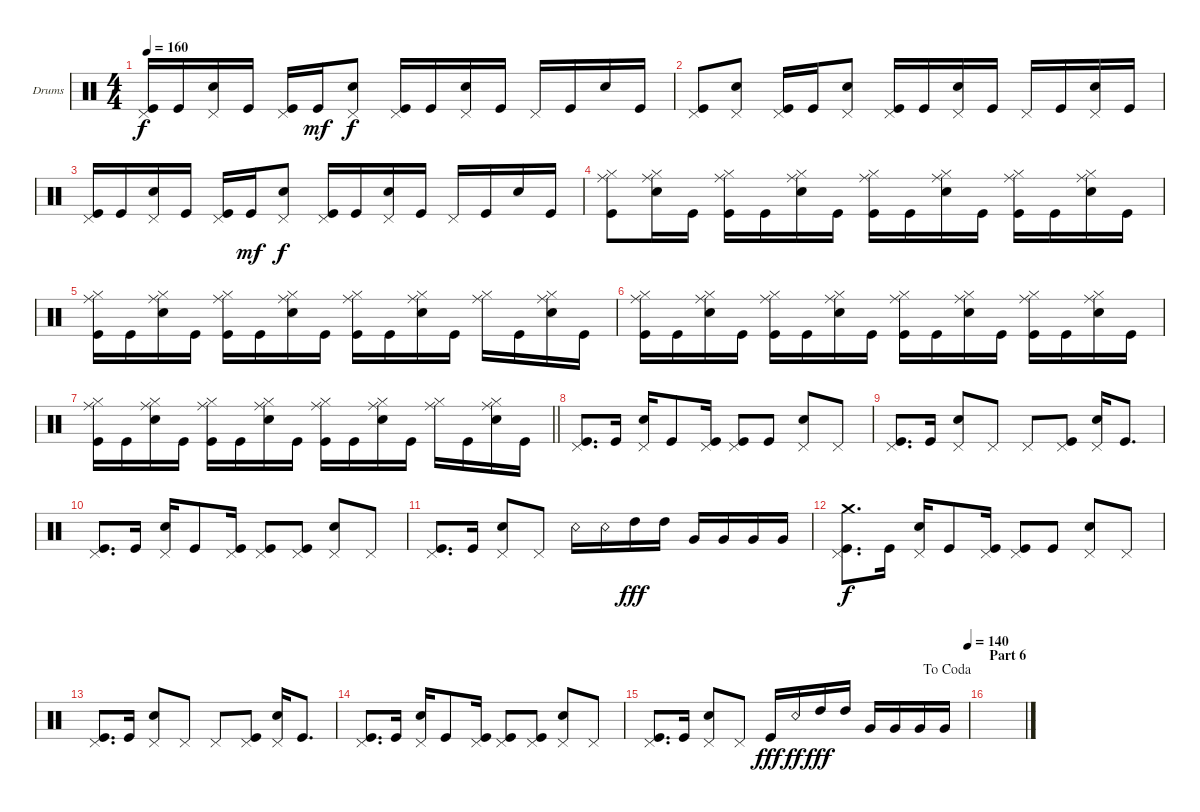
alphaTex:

\defaultSystemsLayout 4
\bracketExtendMode groupsimilarinstruments
\firstSystemTrackNameOrientation horizontal
\otherSystemsTrackNameOrientation horizontal
\track ("Drumkit" "Drums") {instrument percussion}
\staff {score}
\articulation defaults
\ts (4 4)
\tempo 160
\clef neutral
\ks aminor
("Kick (hit)" "Pedal Hi-Hat (hit)").16{dy f} "Kick (hit)".16 ("Snare (hit) 2" "Pedal Hi-Hat (hit)").16 "Kick (hit)".16 ("Kick (hit)" "Pedal Hi-Hat (hit)").16 "Kick (hit)".16{dy mf} ("Snare (hit) 2" "Pedal Hi-Hat (hit)").8{dy f} ("Kick (hit)" "Pedal Hi-Hat (hit)").16 "Kick (hit)".16 ("Snare (hit) 2" "Pedal Hi-Hat (hit)").16 "Kick (hit)".16 "Pedal Hi-Hat (hit)".16 "Kick (hit)".16 "Snare (hit) 2".16 "Kick (hit)".16 |
("Kick (hit)" "Pedal Hi-Hat (hit)").8 ("Snare (hit) 2" "Pedal Hi-Hat (hit)").8 ("Kick (hit)" "Pedal Hi-Hat (hit)").16 "Kick (hit)".16 ("Snare (hit) 2" "Pedal Hi-Hat (hit)").8 ("Kick (hit)" "Pedal Hi-Hat (hit)").16 "Kick (hit)".16 ("Snare (hit) 2" "Pedal Hi-Hat (hit)").16 "Kick (hit)".16 "Pedal Hi-Hat (hit)".16 "Kick (hit)".16 ("Snare (hit) 2" "Pedal Hi-Hat (hit)").16 "Kick (hit)".16 |
("Kick (hit)" "Pedal Hi-Hat (hit)").16 "Kick (hit)".16 ("Snare (hit) 2" "Pedal Hi-Hat (hit)").16 "Kick (hit)".16 ("Kick (hit)" "Pedal Hi-Hat (hit)").16 "Kick (hit)".16{dy mf} ("Snare (hit) 2" "Pedal Hi-Hat (hit)").8{dy f} ("Kick (hit)" "Pedal Hi-Hat (hit)").16 "Kick (hit)".16 ("Snare (hit) 2" "Pedal Hi-Hat (hit)").16 "Kick (hit)".16 "Pedal Hi-Hat (hit)".16 "Kick (hit)".16 "Snare (hit) 2".16 "Kick (hit)".16 |
("Kick (hit)" "Ride (middle)" "Hi-Hat (closed)").8 ("Snare (hit) 2" "Hi-Hat (closed)" "Ride (middle)").16 "Kick (hit)".16 ("Kick (hit)" "Hi-Hat (closed)" "Ride (middle)").16 "Kick (hit)".16 ("Snare (hit) 2" "Hi-Hat (closed)" "Ride (middle)").16 "Kick (hit)".16 ("Kick (hit)" "Hi-Hat (closed)" "Ride (middle)").16 "Kick (hit)".16 ("Snare (hit) 2" "Hi-Hat (closed)" "Ride (middle)").16 "Kick (hit)".16 ("Kick (hit)" "Hi-Hat (closed)" "Ride (middle)").16 "Kick (hit)".16 ("Snare (hit) 2" "Hi-Hat (closed)" "Ride (middle)").16 "Kick (hit)".16 |
("Kick (hit)" "Ride (middle)" "Hi-Hat (closed)").16 "Kick (hit)".16 ("Snare (hit) 2" "Hi-Hat (closed)" "Ride (middle)").16 "Kick (hit)".16 ("Kick (hit)" "Hi-Hat (closed)" "Ride (middle)").16 "Kick (hit)".16 ("Snare (hit) 2" "Hi-Hat (closed)" "Ride (middle)").16 "Kick (hit)".16 ("Kick (hit)" "Hi-Hat (closed)" "Ride (middle)").16 "Kick (hit)".16 ("Snare (hit) 2" "Hi-Hat (closed)" "Ride (middle)").16 "Kick (hit)".16 ("Hi-Hat (closed)" "Ride (middle)").16 "Kick (hit)".16 ("Snare (hit) 2" "Hi-Hat (closed)" "Ride (middle)").16 "Kick (hit)".16 |
("Kick (hit)" "Ride (middle)" "Hi-Hat (closed)").16 "Kick (hit)".16 ("Snare (hit) 2" "Hi-Hat (closed)" "Ride (middle)").16 "Kick (hit)".16 ("Kick (hit)" "Hi-Hat (closed)" "Ride (middle)").16 "Kick (hit)".16 ("Snare (hit) 2" "Hi-Hat (closed)" "Ride (middle)").16 "Kick (hit)".16 ("Kick (hit)" "Hi-Hat (closed)" "Ride (middle)").16 "Kick (hit)".16 ("Snare (hit) 2" "Hi-Hat (closed)" "Ride (middle)").16 "Kick (hit)".16 ("Kick (hit)" "Hi-Hat (closed)" "Ride (middle)").16 "Kick (hit)".16 ("Snare (hit) 2" "Hi-Hat (closed)" "Ride (middle)").16 "Kick (hit)".16 |
\barLineRight lightlight
("Kick (hit)" "Ride (middle)" "Hi-Hat (closed)").16 "Kick (hit)".16 ("Snare (hit) 2" "Hi-Hat (closed)" "Ride (middle)").16 "Kick (hit)".16 ("Kick (hit)" "Hi-Hat (closed)" "Ride (middle)").16 "Kick (hit)".16 ("Snare (hit) 2" "Hi-Hat (closed)" "Ride (middle)").16 "Kick (hit)".16 ("Kick (hit)" "Hi-Hat (closed)" "Ride (middle)").16 "Kick (hit)".16 ("Snare (hit) 2" "Hi-Hat (closed)" "Ride (middle)").16 "Kick (hit)".16 ("Hi-Hat (closed)" "Ride (middle)").16 "Kick (hit)".16 ("Snare (hit) 2" "Hi-Hat (closed)" "Ride (middle)").16 "Kick (hit)".16 |
("Kick (hit)" "Pedal Hi-Hat (hit)").8{d} "Kick (hit)".16 ("Snare (hit) 2" "Pedal Hi-Hat (hit)").16 "Kick (hit)".8 ("Kick (hit)" "Pedal Hi-Hat (hit)").16 ("Kick (hit)" "Pedal Hi-Hat (hit)").8 "Kick (hit)".8 ("Snare (hit) 2" "Pedal Hi-Hat (hit)").8 "Pedal Hi-Hat (hit)".8 |
("Kick (hit)" "Pedal Hi-Hat (hit)").8{d} "Kick (hit)".16 ("Snare (hit) 2" "Pedal Hi-Hat (hit)").8 "Pedal Hi-Hat (hit)".8 "Pedal Hi-Hat (hit)".8 ("Kick (hit)" "Pedal Hi-Hat (hit)").8 ("Snare (hit) 2" "Pedal Hi-Hat (hit)").16 "Kick (hit)".8{d} |
("Kick (hit)" "Pedal Hi-Hat (hit)").8{d} "Kick (hit)".16 ("Snare (hit) 2" "Pedal Hi-Hat (hit)").16 "Kick (hit)".8 ("Kick (hit)" "Pedal Hi-Hat (hit)").16 ("Kick (hit)" "Pedal Hi-Hat (hit)").8 ("Kick (hit)" "Pedal Hi-Hat (hit)").8 ("Snare (hit) 2" "Pedal Hi-Hat (hit)").8 "Pedal Hi-Hat (hit)".8 |
("Kick (hit)" "Pedal Hi-Hat (hit)").8{d} "Kick (hit)".16 ("Snare (hit) 2" "Pedal Hi-Hat (hit)").8 "Pedal Hi-Hat (hit)".8 "Snare (rim shot)".16 "Snare (rim shot)".16 "High Tom (hit)".16{dy fff} "High Tom (hit)".16 "Very Low Tom (hit)".16 "Very Low Tom (hit)".16 "Very Low Tom (hit)".16 "Very Low Tom (hit)".16 |
("Kick (hit)" "Pedal Hi-Hat (hit)" "Crash medium (hit)").8{d dy f} "Kick (hit)".16 ("Snare (hit) 2" "Pedal Hi-Hat (hit)").16 "Kick (hit)".8 ("Kick (hit)" "Pedal Hi-Hat (hit)").16 ("Kick (hit)" "Pedal Hi-Hat (hit)").8 "Kick (hit)".8 ("Snare (hit) 2" "Pedal Hi-Hat (hit)").8 "Pedal Hi-Hat (hit)".8 |
("Kick (hit)" "Pedal Hi-Hat (hit)").8{d} "Kick (hit)".16 ("Snare (hit) 2" "Pedal Hi-Hat (hit)").8 "Pedal Hi-Hat (hit)".8 "Pedal Hi-Hat (hit)".8 ("Kick (hit)" "Pedal Hi-Hat (hit)").8 ("Snare (hit) 2" "Pedal Hi-Hat (hit)").16 "Kick (hit)".8{d} |
("Kick (hit)" "Pedal Hi-Hat (hit)").8{d} "Kick (hit)".16 ("Snare (hit) 2" "Pedal Hi-Hat (hit)").16 "Kick (hit)".8 ("Kick (hit)" "Pedal Hi-Hat (hit)").16 ("Kick (hit)" "Pedal Hi-Hat (hit)").8 ("Kick (hit)" "Pedal Hi-Hat (hit)").8 ("Snare (hit) 2" "Pedal Hi-Hat (hit)").8 "Pedal Hi-Hat (hit)".8 |
\jump dacoda
\tempo (140 1)
("Kick (hit)" "Pedal Hi-Hat (hit)").8{d} "Kick (hit)".16 ("Snare (hit) 2" "Pedal Hi-Hat (hit)").8 "Pedal Hi-Hat (hit)".8 "Kick (hit)".16{dy fff} "Snare (rim shot)".16{dy ff} "High Tom (hit)".16{dy fff} "High Tom (hit)".16 "Very Low Tom (hit)".16 "Very Low Tom (hit)".16 "Very Low Tom (hit)".16 "Very Low Tom (hit)".16 |
\section ("" "Part 6")
